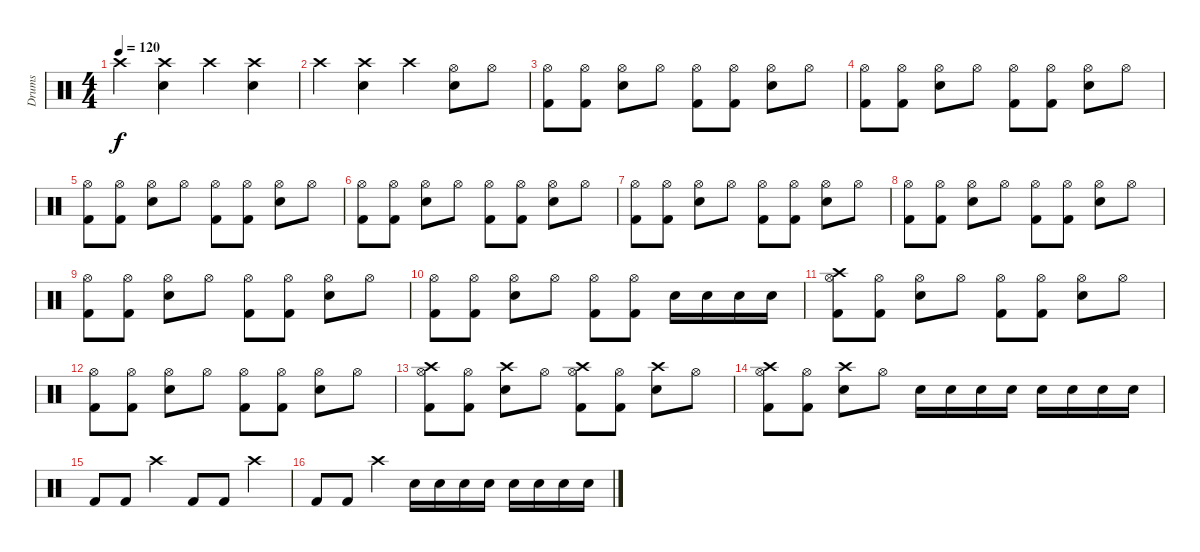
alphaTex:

\track ("Drums" "Drums") {instrument percussion}
\staff {score}
\articulation defaults
\ts (4 4)
\tempo 120
\clef neutral
\ks c "Crash high (hit)".4{dy f}
("Crash high (hit)" "Snare (hit) 2").4 "Crash high (hit)".4 ("Crash high (hit)" "Snare (hit) 2").4 |
"Crash high (hit)".4 ("Crash high (hit)" "Snare (hit) 2").4 "Crash high (hit)".4 ("Hi-Hat (open)" "Snare (hit) 2").8 "Hi-Hat (open)".8 |
("Hi-Hat (open)" "Kick (hit) 2").8 ("Hi-Hat (open)" "Kick (hit) 2").8 ("Hi-Hat (open)" "Snare (hit) 2").8 "Hi-Hat (open)".8 ("Hi-Hat (open)" "Kick (hit) 2").8 ("Hi-Hat (open)" "Kick (hit) 2").8 ("Hi-Hat (open)" "Snare (hit) 2").8 "Hi-Hat (open)".8 |
("Hi-Hat (open)" "Kick (hit) 2").8 ("Hi-Hat (open)" "Kick (hit) 2").8 ("Hi-Hat (open)" "Snare (hit) 2").8 "Hi-Hat (open)".8 ("Hi-Hat (open)" "Kick (hit) 2").8 ("Hi-Hat (open)" "Kick (hit) 2").8 ("Hi-Hat (open)" "Snare (hit) 2").8 "Hi-Hat (open)".8 |
("Hi-Hat (open)" "Kick (hit) 2").8 ("Hi-Hat (open)" "Kick (hit) 2").8 ("Hi-Hat (open)" "Snare (hit) 2").8 "Hi-Hat (open)".8 ("Hi-Hat (open)" "Kick (hit) 2").8 ("Hi-Hat (open)" "Kick (hit) 2").8 ("Hi-Hat (open)" "Snare (hit) 2").8 "Hi-Hat (open)".8 |
("Hi-Hat (open)" "Kick (hit) 2").8 ("Hi-Hat (open)" "Kick (hit) 2").8 ("Hi-Hat (open)" "Snare (hit) 2").8 "Hi-Hat (open)".8 ("Hi-Hat (open)" "Kick (hit) 2").8 ("Hi-Hat (open)" "Kick (hit) 2").8 ("Hi-Hat (open)" "Snare (hit) 2").8 "Hi-Hat (open)".8 |
("Hi-Hat (open)" "Kick (hit) 2").8 ("Hi-Hat (open)" "Kick (hit) 2").8 ("Hi-Hat (open)" "Snare (hit) 2").8 "Hi-Hat (open)".8 ("Hi-Hat (open)" "Kick (hit) 2").8 ("Hi-Hat (open)" "Kick (hit) 2").8 ("Hi-Hat (open)" "Snare (hit) 2").8 "Hi-Hat (open)".8 |
("Hi-Hat (open)" "Kick (hit) 2").8 ("Hi-Hat (open)" "Kick (hit) 2").8 ("Hi-Hat (open)" "Snare (hit) 2").8 "Hi-Hat (open)".8 ("Hi-Hat (open)" "Kick (hit) 2").8 ("Hi-Hat (open)" "Kick (hit) 2").8 ("Hi-Hat (open)" "Snare (hit) 2").8 "Hi-Hat (open)".8 |
("Hi-Hat (open)" "Kick (hit) 2").8 ("Hi-Hat (open)" "Kick (hit) 2").8 ("Hi-Hat (open)" "Snare (hit) 2").8 "Hi-Hat (open)".8 ("Hi-Hat (open)" "Kick (hit) 2").8 ("Hi-Hat (open)" "Kick (hit) 2").8 ("Hi-Hat (open)" "Snare (hit) 2").8 "Hi-Hat (open)".8 |
("Hi-Hat (open)" "Kick (hit) 2").8 ("Hi-Hat (open)" "Kick (hit) 2").8 ("Hi-Hat (open)" "Snare (hit) 2").8 "Hi-Hat (open)".8 ("Hi-Hat (open)" "Kick (hit) 2").8 ("Hi-Hat (open)" "Kick (hit) 2").8 "Snare (hit) 2".16 "Snare (hit) 2".16 "Snare (hit) 2".16 "Snare (hit) 2".16 |
("Hi-Hat (open)" "Kick (hit) 2" "Crash high (hit)").8 ("Hi-Hat (open)" "Kick (hit) 2").8 ("Hi-Hat (open)" "Snare (hit) 2").8 "Hi-Hat (open)".8 ("Hi-Hat (open)" "Kick (hit) 2").8 ("Hi-Hat (open)" "Kick (hit) 2").8 ("Hi-Hat (open)" "Snare (hit) 2").8 "Hi-Hat (open)".8 |
("Hi-Hat (open)" "Kick (hit) 2").8 ("Hi-Hat (open)" "Kick (hit) 2").8 ("Hi-Hat (open)" "Snare (hit) 2").8 "Hi-Hat (open)".8 ("Hi-Hat (open)" "Kick (hit) 2").8 ("Hi-Hat (open)" "Kick (hit) 2").8 ("Hi-Hat (open)" "Snare (hit) 2").8 "Hi-Hat (open)".8 |
("Hi-Hat (open)" "Kick (hit) 2" "Crash high (hit)").8 ("Hi-Hat (open)" "Kick (hit) 2").8 ("Snare (hit) 2" "Crash high (hit)").8 "Hi-Hat (open)".8 ("Hi-Hat (open)" "Kick (hit) 2" "Crash high (hit)").8 ("Hi-Hat (open)" "Kick (hit) 2").8 ("Snare (hit) 2" "Crash high (hit)").8 "Hi-Hat (open)".8 |
("Hi-Hat (open)" "Kick (hit) 2" "Crash high (hit)").8 ("Hi-Hat (open)" "Kick (hit) 2").8 ("Snare (hit) 2" "Crash high (hit)").8 "Hi-Hat (open)".8 "Snare (hit) 2".16 "Snare (hit) 2".16 "Snare (hit) 2".16 "Snare (hit) 2".16 "Snare (hit) 2".16 "Snare (hit) 2".16 "Snare (hit) 2".16 "Snare (hit) 2".16 |
"Kick (hit) 2".8 "Kick (hit) 2".8 "Crash high (hit)".4 "Kick (hit) 2".8 "Kick (hit) 2".8 "Crash high (hit)".4 |
"Kick (hit) 2".8 "Kick (hit) 2".8 "Crash high (hit)".4 "Snare (hit) 2".16 "Snare (hit) 2".16 "Snare (hit) 2".16 "Snare (hit) 2".16 "Snare (hit) 2".16 "Snare (hit) 2".16 "Snare (hit) 2".16 "Snare (hit) 2".16
